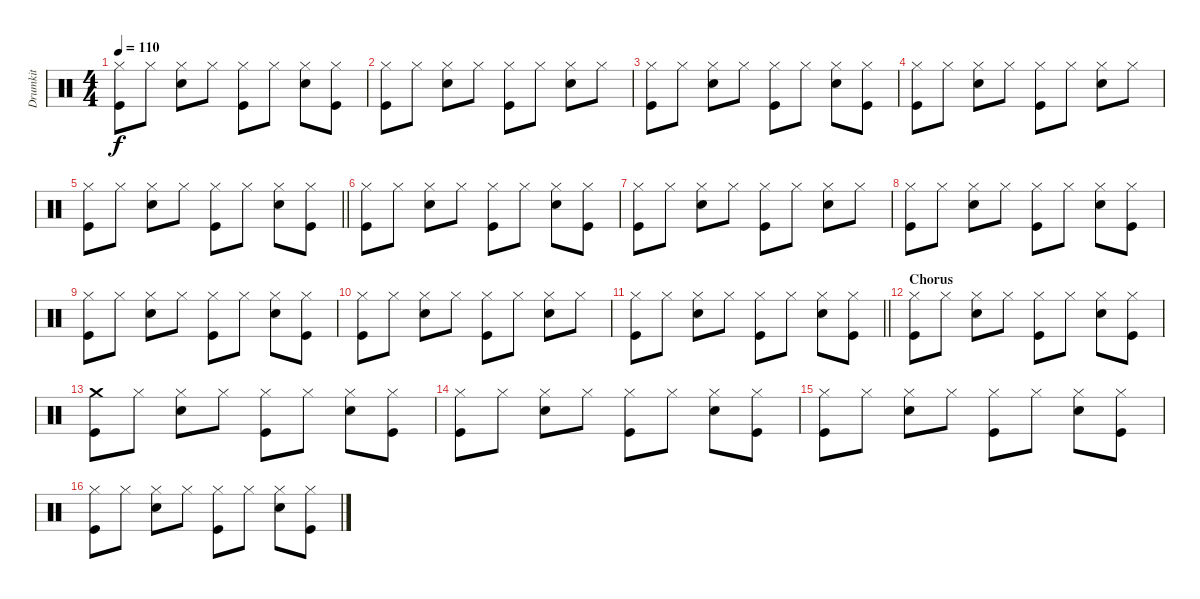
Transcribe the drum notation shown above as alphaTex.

\track ("Drumkit" "Drumkit") {instrument percussion}
\staff {score}
\articulation defaults
\ts (4 4)
\tempo 110
\clef neutral
\ks c
("Hi-Hat (closed)" "Kick (hit)").8{dy f} "Hi-Hat (closed)".8 ("Hi-Hat (closed)" "Snare (hit) 2").8 "Hi-Hat (closed)".8 ("Hi-Hat (closed)" "Kick (hit)").8 "Hi-Hat (closed)".8 ("Hi-Hat (closed)" "Snare (hit) 2").8 ("Hi-Hat (closed)" "Kick (hit)").8 |
("Hi-Hat (closed)" "Kick (hit)").8 "Hi-Hat (closed)".8 ("Hi-Hat (closed)" "Snare (hit) 2").8 "Hi-Hat (closed)".8 ("Hi-Hat (closed)" "Kick (hit)").8 "Hi-Hat (closed)".8 ("Hi-Hat (closed)" "Snare (hit) 2").8 "Hi-Hat (closed)".8 |
("Hi-Hat (closed)" "Kick (hit)").8 "Hi-Hat (closed)".8 ("Hi-Hat (closed)" "Snare (hit) 2").8 "Hi-Hat (closed)".8 ("Hi-Hat (closed)" "Kick (hit)").8 "Hi-Hat (closed)".8 ("Hi-Hat (closed)" "Snare (hit) 2").8 ("Hi-Hat (closed)" "Kick (hit)").8 |
("Hi-Hat (closed)" "Kick (hit)").8 "Hi-Hat (closed)".8 ("Hi-Hat (closed)" "Snare (hit) 2").8 "Hi-Hat (closed)".8 ("Hi-Hat (closed)" "Kick (hit)").8 "Hi-Hat (closed)".8 ("Hi-Hat (closed)" "Snare (hit) 2").8 "Hi-Hat (closed)".8 |
\barLineRight lightlight
("Hi-Hat (closed)" "Kick (hit)").8 "Hi-Hat (closed)".8 ("Hi-Hat (closed)" "Snare (hit) 2").8 "Hi-Hat (closed)".8 ("Hi-Hat (closed)" "Kick (hit)").8 "Hi-Hat (closed)".8 ("Hi-Hat (closed)" "Snare (hit) 2").8 ("Hi-Hat (closed)" "Kick (hit)").8 |
("Hi-Hat (closed)" "Kick (hit)").8 "Hi-Hat (closed)".8 ("Hi-Hat (closed)" "Snare (hit) 2").8 "Hi-Hat (closed)".8 ("Hi-Hat (closed)" "Kick (hit)").8 "Hi-Hat (closed)".8 ("Hi-Hat (closed)" "Snare (hit) 2").8 ("Hi-Hat (closed)" "Kick (hit)").8 |
("Hi-Hat (closed)" "Kick (hit)").8 "Hi-Hat (closed)".8 ("Hi-Hat (closed)" "Snare (hit) 2").8 "Hi-Hat (closed)".8 ("Hi-Hat (closed)" "Kick (hit)").8 "Hi-Hat (closed)".8 ("Hi-Hat (closed)" "Snare (hit) 2").8 "Hi-Hat (closed)".8 |
("Hi-Hat (closed)" "Kick (hit)").8 "Hi-Hat (closed)".8 ("Hi-Hat (closed)" "Snare (hit) 2").8 "Hi-Hat (closed)".8 ("Hi-Hat (closed)" "Kick (hit)").8 "Hi-Hat (closed)".8 ("Hi-Hat (closed)" "Snare (hit) 2").8 ("Hi-Hat (closed)" "Kick (hit)").8 |
("Hi-Hat (closed)" "Kick (hit)").8 "Hi-Hat (closed)".8 ("Hi-Hat (closed)" "Snare (hit) 2").8 "Hi-Hat (closed)".8 ("Hi-Hat (closed)" "Kick (hit)").8 "Hi-Hat (closed)".8 ("Hi-Hat (closed)" "Snare (hit) 2").8 ("Hi-Hat (closed)" "Kick (hit)").8 |
("Hi-Hat (closed)" "Kick (hit)").8 "Hi-Hat (closed)".8 ("Hi-Hat (closed)" "Snare (hit) 2").8 "Hi-Hat (closed)".8 ("Hi-Hat (closed)" "Kick (hit)").8 "Hi-Hat (closed)".8 ("Hi-Hat (closed)" "Snare (hit) 2").8 "Hi-Hat (closed)".8 |
\barLineRight lightlight
("Hi-Hat (closed)" "Kick (hit)").8 "Hi-Hat (closed)".8 ("Hi-Hat (closed)" "Snare (hit) 2").8 "Hi-Hat (closed)".8 ("Hi-Hat (closed)" "Kick (hit)").8 "Hi-Hat (closed)".8 ("Hi-Hat (closed)" "Snare (hit) 2").8 ("Hi-Hat (closed)" "Kick (hit)").8 |
\section ("" "Chorus")
("Hi-Hat (closed)" "Kick (hit)").8 "Hi-Hat (closed)".8 ("Hi-Hat (closed)" "Snare (hit) 2").8 "Hi-Hat (closed)".8 ("Hi-Hat (closed)" "Kick (hit)").8 "Hi-Hat (closed)".8 ("Hi-Hat (closed)" "Snare (hit) 2").8 ("Hi-Hat (closed)" "Kick (hit)").8 |
("Crash medium (hit)" "Kick (hit)").8 "Hi-Hat (closed)".8 ("Hi-Hat (closed)" "Snare (hit) 2").8 "Hi-Hat (closed)".8 ("Hi-Hat (closed)" "Kick (hit)").8 "Hi-Hat (closed)".8 ("Hi-Hat (closed)" "Snare (hit) 2").8 ("Hi-Hat (closed)" "Kick (hit)").8 |
("Hi-Hat (closed)" "Kick (hit)").8 "Hi-Hat (closed)".8 ("Hi-Hat (closed)" "Snare (hit) 2").8 "Hi-Hat (closed)".8 ("Hi-Hat (closed)" "Kick (hit)").8 "Hi-Hat (closed)".8 ("Hi-Hat (closed)" "Snare (hit) 2").8 ("Hi-Hat (closed)" "Kick (hit)").8 |
("Hi-Hat (closed)" "Kick (hit)").8 "Hi-Hat (closed)".8 ("Hi-Hat (closed)" "Snare (hit) 2").8 "Hi-Hat (closed)".8 ("Hi-Hat (closed)" "Kick (hit)").8 "Hi-Hat (closed)".8 ("Hi-Hat (closed)" "Snare (hit) 2").8 ("Hi-Hat (closed)" "Kick (hit)").8 |
("Hi-Hat (closed)" "Kick (hit)").8 "Hi-Hat (closed)".8 ("Hi-Hat (closed)" "Snare (hit) 2").8 "Hi-Hat (closed)".8 ("Hi-Hat (closed)" "Kick (hit)").8 "Hi-Hat (closed)".8 ("Hi-Hat (closed)" "Snare (hit) 2").8 ("Hi-Hat (closed)" "Kick (hit)").8
